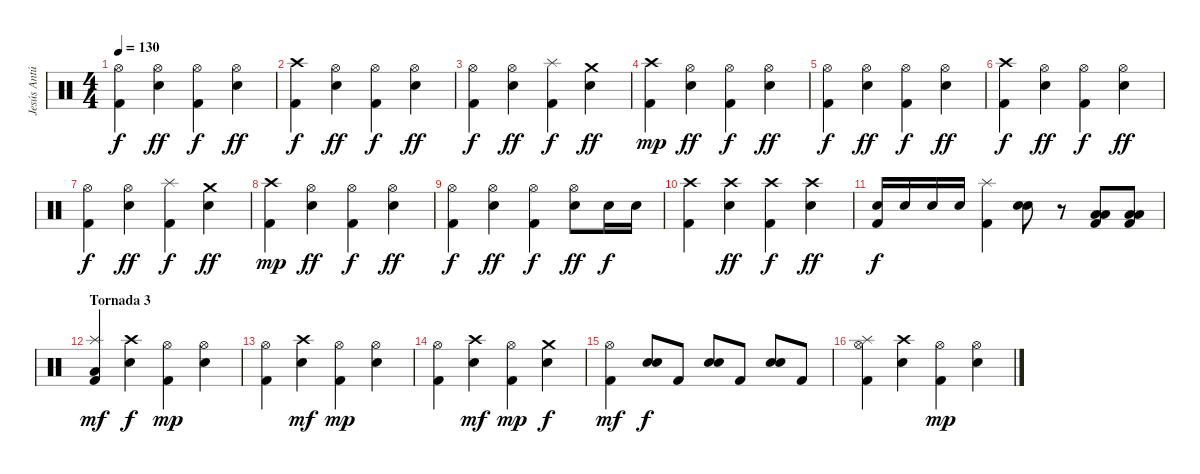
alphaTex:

\track ("Jesús Antúnez (Bateria)" "Jesús Antú") {instrument percussion}
\staff {score}
\articulation defaults
\ts (4 4)
\tempo 130
\clef neutral
\ks c
("Hi-Hat (open)" "Kick (hit) 2").4{dy f} ("Snare (hit) 2" "Hi-Hat (open)").4{dy ff} ("Kick (hit) 2" "Hi-Hat (open)").4{dy f} ("Snare (hit) 2" "Hi-Hat (open)").4{dy ff} |
("Crash high (hit)" "Kick (hit) 2").4{dy f} ("Snare (hit) 2" "Hi-Hat (open)").4{dy ff} ("Kick (hit) 2" "Hi-Hat (open)").4{dy f} ("Snare (hit) 2" "Hi-Hat (open)").4{dy ff} |
("Hi-Hat (open)" "Kick (hit) 2").4{dy f} ("Snare (hit) 2" "Hi-Hat (open)").4{dy ff} ("Kick (hit) 2" "Splash (hit)").4{dy f} ("Snare (hit) 2" "Crash medium (hit)").4{dy ff} |
("Crash high (hit)" "Kick (hit) 2").4{dy mp} ("Snare (hit) 2" "Hi-Hat (open)").4{dy ff} ("Kick (hit) 2" "Hi-Hat (open)").4{dy f} ("Snare (hit) 2" "Hi-Hat (open)").4{dy ff} |
("Hi-Hat (open)" "Kick (hit) 2").4{dy f} ("Snare (hit) 2" "Hi-Hat (open)").4{dy ff} ("Kick (hit) 2" "Hi-Hat (open)").4{dy f} ("Snare (hit) 2" "Hi-Hat (open)").4{dy ff} |
("Crash high (hit)" "Kick (hit) 2").4{dy f} ("Snare (hit) 2" "Hi-Hat (open)").4{dy ff} ("Kick (hit) 2" "Hi-Hat (open)").4{dy f} ("Snare (hit) 2" "Hi-Hat (open)").4{dy ff} |
("Hi-Hat (open)" "Kick (hit) 2").4{dy f} ("Snare (hit) 2" "Hi-Hat (open)").4{dy ff} ("Kick (hit) 2" "Splash (hit)").4{dy f} ("Snare (hit) 2" "Crash medium (hit)").4{dy ff} |
("Crash high (hit)" "Kick (hit) 2").4{dy mp} ("Snare (hit) 2" "Hi-Hat (open)").4{dy ff} ("Kick (hit) 2" "Hi-Hat (open)").4{dy f} ("Snare (hit) 2" "Hi-Hat (open)").4{dy ff} |
("Hi-Hat (open)" "Kick (hit) 2").4{dy f} ("Snare (hit) 2" "Hi-Hat (open)").4{dy ff} ("Kick (hit) 2" "Hi-Hat (open)").4{dy f} ("Snare (hit) 2" "Hi-Hat (open)").8{dy ff} "Snare (hit) 2".16{dy f} "Snare (hit) 2".16 |
("Crash high (hit)" "Kick (hit) 2").4 ("Snare (hit) 2" "Crash high (hit)").4{dy ff} ("Kick (hit) 2" "Crash high (hit)").4{dy f} ("Snare (hit) 2" "Crash high (hit)").4{dy ff} |
("Kick (hit) 2" "Snare (hit) 2").16{dy f} "Snare (hit) 2".16 "Snare (hit) 2".16 "Snare (hit) 2".16 ("Kick (hit) 2" "Splash (hit)").4 ("Snare (hit) 2" "Snare (hit) 2").8 r.8 ("Kick (hit) 2" "Low Floor Tom (hit)" "Low Floor Tom (hit)").8 ("Kick (hit) 2" "Low Floor Tom (hit)" "Low Floor Tom (hit)").8 |
\section ("" "Tornada 3")
("Splash (hit)" "Low Floor Tom (hit)" "Kick (hit) 2").4{dy mf} ("Snare (hit) 2" "Crash high (hit)").4{dy f} ("Kick (hit) 2" "Hi-Hat (open)").4{dy mp} ("Snare (hit) 2" "Hi-Hat (open)").4 |
("Hi-Hat (open)" "Kick (hit) 2").4 ("Snare (hit) 2" "Crash high (hit)").4{dy mf} ("Kick (hit) 2" "Hi-Hat (open)").4{dy mp} ("Snare (hit) 2" "Hi-Hat (open)").4 |
("Hi-Hat (open)" "Kick (hit) 2").4 ("Snare (hit) 2" "Crash high (hit)").4{dy mf} ("Kick (hit) 2" "Hi-Hat (open)").4{dy mp} ("Snare (hit) 2" "Crash medium (hit)").4{dy f} |
("Hi-Hat (open)" "Kick (hit) 2").4{dy mf} ("Snare (hit) 2" "Snare (hit) 2").8{dy f} "Kick (hit) 2".8 ("Snare (hit) 2" "Snare (hit) 2").8 "Kick (hit) 2".8 ("Snare (hit) 2" "Snare (hit) 2").8 "Kick (hit) 2".8 |
("Splash (hit)" "Hi-Hat (open)" "Kick (hit) 2").4 ("Snare (hit) 2" "Crash high (hit)").4 ("Kick (hit) 2" "Hi-Hat (open)").4{dy mp} ("Snare (hit) 2" "Hi-Hat (open)").4
